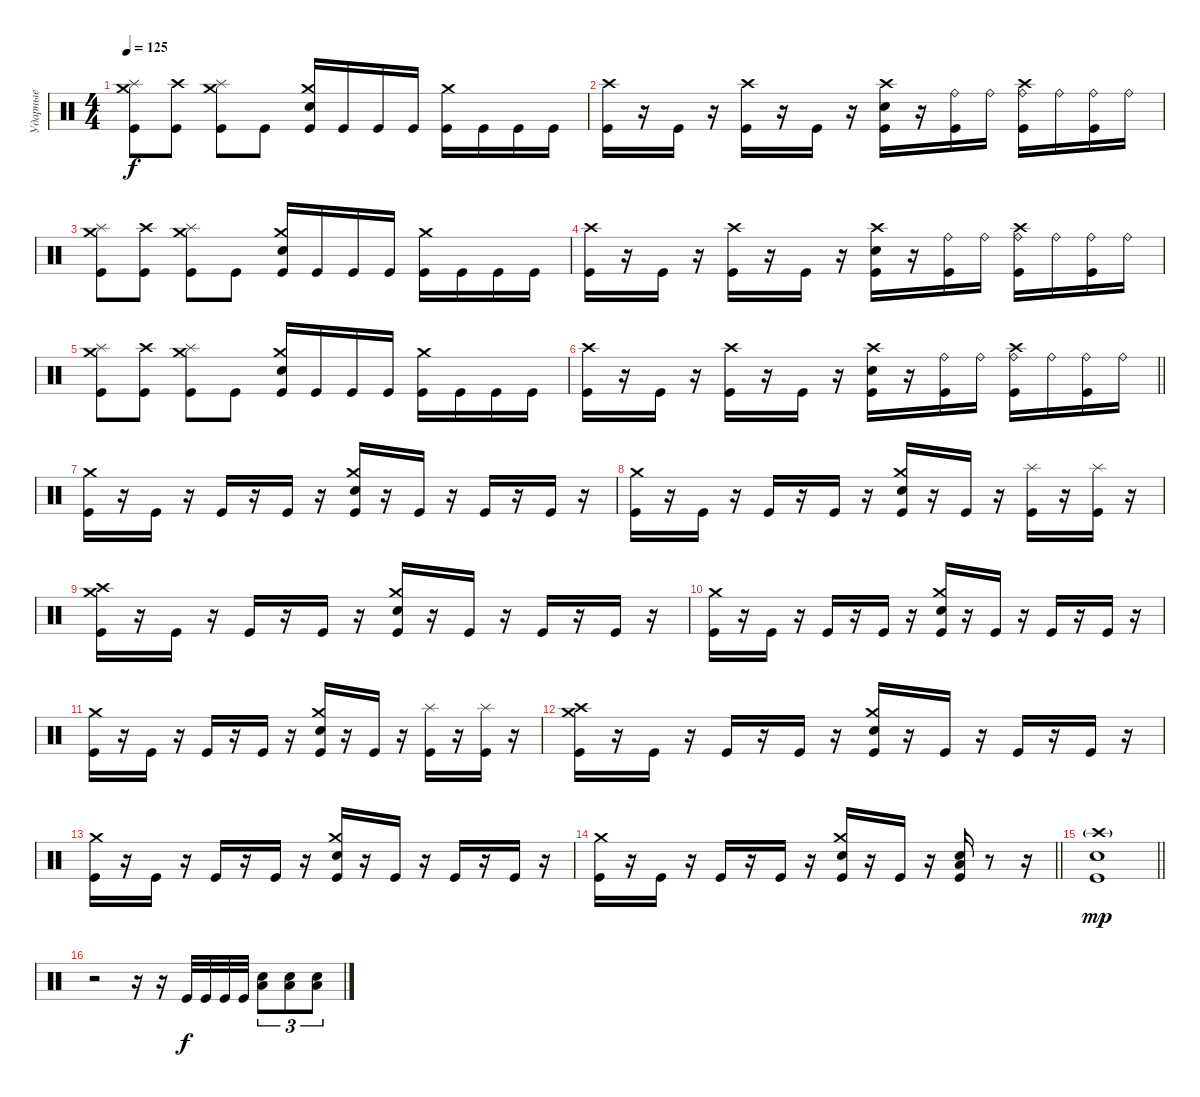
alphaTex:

\track ("Ударные" "Ударные") {instrument percussion}
\staff {score}
\articulation defaults
\ts (4 4)
\tempo 125
\clef neutral
\ks c
("Kick (hit)" "Crash medium (hit)" "Splash (hit)").8{dy f} ("Kick (hit)" "Crash high (hit)").8 ("Kick (hit)" "Crash medium (hit)" "Splash (hit)").8 "Kick (hit)".8 ("Kick (hit)" "Snare (hit) 2" "Crash medium (hit)").16 "Kick (hit)".16 "Kick (hit)".16 "Kick (hit)".16 ("Kick (hit)" "Crash medium (hit)").16 "Kick (hit)".16 "Kick (hit)".16 "Kick (hit)".16 |
("Kick (hit)" "Crash high (hit)").16 r.16 "Kick (hit)".16 r.16 ("Kick (hit)" "Crash high (hit)").16 r.16 "Kick (hit)".16 r.16 ("Kick (hit)" "Snare (hit) 2" "Crash high (hit)").16 r.16 ("Kick (hit)" "Ride (bell)").16 "Ride (bell)".16 ("Kick (hit)" "Ride (bell)" "Crash high (hit)").16 "Ride (bell)".16 ("Kick (hit)" "Ride (bell)").16 "Ride (bell)".16 |
("Kick (hit)" "Crash medium (hit)" "Splash (hit)").8 ("Kick (hit)" "Crash high (hit)").8 ("Kick (hit)" "Crash medium (hit)" "Splash (hit)").8 "Kick (hit)".8 ("Kick (hit)" "Snare (hit) 2" "Crash medium (hit)").16 "Kick (hit)".16 "Kick (hit)".16 "Kick (hit)".16 ("Kick (hit)" "Crash medium (hit)").16 "Kick (hit)".16 "Kick (hit)".16 "Kick (hit)".16 |
("Kick (hit)" "Crash high (hit)").16 r.16 "Kick (hit)".16 r.16 ("Kick (hit)" "Crash high (hit)").16 r.16 "Kick (hit)".16 r.16 ("Kick (hit)" "Snare (hit) 2" "Crash high (hit)").16 r.16 ("Kick (hit)" "Ride (bell)").16 "Ride (bell)".16 ("Kick (hit)" "Ride (bell)" "Crash high (hit)").16 "Ride (bell)".16 ("Kick (hit)" "Ride (bell)").16 "Ride (bell)".16 |
("Kick (hit)" "Crash medium (hit)" "Splash (hit)").8 ("Kick (hit)" "Crash high (hit)").8 ("Kick (hit)" "Crash medium (hit)" "Splash (hit)").8 "Kick (hit)".8 ("Kick (hit)" "Snare (hit) 2" "Crash medium (hit)").16 "Kick (hit)".16 "Kick (hit)".16 "Kick (hit)".16 ("Kick (hit)" "Crash medium (hit)").16 "Kick (hit)".16 "Kick (hit)".16 "Kick (hit)".16 |
\barLineRight lightlight
("Kick (hit)" "Crash high (hit)").16 r.16 "Kick (hit)".16 r.16 ("Kick (hit)" "Crash high (hit)").16 r.16 "Kick (hit)".16 r.16 ("Kick (hit)" "Snare (hit) 2" "Crash high (hit)").16 r.16 ("Kick (hit)" "Ride (bell)").16 "Ride (bell)".16 ("Kick (hit)" "Ride (bell)" "Crash high (hit)").16 "Ride (bell)".16 ("Kick (hit)" "Ride (bell)").16 "Ride (bell)".16 |
("Kick (hit)" "Crash medium (hit)").16 r.16 "Kick (hit)".16 r.16 "Kick (hit)".16 r.16 "Kick (hit)".16 r.16 ("Kick (hit)" "Snare (hit) 2" "Crash medium (hit)").16 r.16 "Kick (hit)".16 r.16 "Kick (hit)".16 r.16 "Kick (hit)".16 r.16 |
("Kick (hit)" "Crash medium (hit)").16 r.16 "Kick (hit)".16 r.16 "Kick (hit)".16 r.16 "Kick (hit)".16 r.16 ("Kick (hit)" "Snare (hit) 2" "Crash medium (hit)").16 r.16 "Kick (hit)".16 r.16 ("Kick (hit)" "Splash (hit)").16 r.16 ("Kick (hit)" "Splash (hit)").16 r.16 |
("Kick (hit)" "Crash high (hit)" "Crash medium (hit)").16 r.16 "Kick (hit)".16 r.16 "Kick (hit)".16 r.16 "Kick (hit)".16 r.16 ("Kick (hit)" "Snare (hit) 2" "Crash medium (hit)").16 r.16 "Kick (hit)".16 r.16 "Kick (hit)".16 r.16 "Kick (hit)".16 r.16 |
("Kick (hit)" "Crash medium (hit)").16 r.16 "Kick (hit)".16 r.16 "Kick (hit)".16 r.16 "Kick (hit)".16 r.16 ("Kick (hit)" "Snare (hit) 2" "Crash medium (hit)").16 r.16 "Kick (hit)".16 r.16 "Kick (hit)".16 r.16 "Kick (hit)".16 r.16 |
("Kick (hit)" "Crash medium (hit)").16 r.16 "Kick (hit)".16 r.16 "Kick (hit)".16 r.16 "Kick (hit)".16 r.16 ("Kick (hit)" "Snare (hit) 2" "Crash medium (hit)").16 r.16 "Kick (hit)".16 r.16 ("Kick (hit)" "Splash (hit)").16 r.16 ("Kick (hit)" "Splash (hit)").16 r.16 |
("Kick (hit)" "Crash high (hit)" "Crash medium (hit)").16 r.16 "Kick (hit)".16 r.16 "Kick (hit)".16 r.16 "Kick (hit)".16 r.16 ("Kick (hit)" "Snare (hit) 2" "Crash medium (hit)").16 r.16 "Kick (hit)".16 r.16 "Kick (hit)".16 r.16 "Kick (hit)".16 r.16 |
("Kick (hit)" "Crash medium (hit)").16 r.16 "Kick (hit)".16 r.16 "Kick (hit)".16 r.16 "Kick (hit)".16 r.16 ("Kick (hit)" "Snare (hit) 2" "Crash medium (hit)").16 r.16 "Kick (hit)".16 r.16 "Kick (hit)".16 r.16 "Kick (hit)".16 r.16 |
\barLineRight lightlight
("Kick (hit)" "Crash medium (hit)").16 r.16 "Kick (hit)".16 r.16 "Kick (hit)".16 r.16 "Kick (hit)".16 r.16 ("Kick (hit)" "Snare (hit) 2" "Crash medium (hit)").16 r.16 "Kick (hit)".16 r.16 ("Kick (hit)" "Snare (hit) 2" "Low Tom (hit)").16 r.8 r.16 |
\barLineRight lightlight
("Kick (hit)" "Snare (hit) 2" "Crash high (hit)"{g}).1{dy mp} |
r.2 r.16 r.16 "Kick (hit)".32{dy f} "Kick (hit)".32 "Kick (hit)".32 "Kick (hit)".32 ("Snare (hit) 2" "Low Tom (hit)").8{tu (3 2)} ("Snare (hit) 2" "Low Tom (hit)").8{tu (3 2)} ("Snare (hit) 2" "Low Tom (hit)").8{tu (3 2)}
